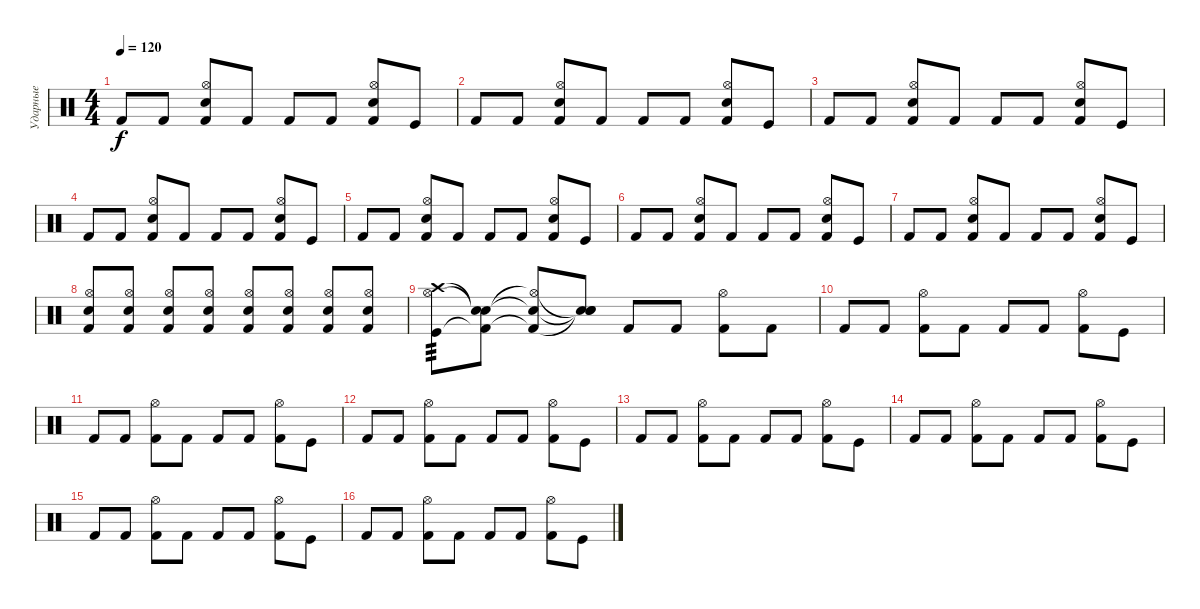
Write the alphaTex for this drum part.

\track ("Ударные" "Ударные") {instrument percussion}
\staff {score}
\articulation defaults
\ts (4 4)
\tempo 120
\clef neutral
\ks c "Kick (hit) 2".8{dy f} "Kick (hit) 2".8
("Kick (hit) 2" "Hi-Hat (open)" "Snare (hit) 2").8 "Kick (hit) 2".8 "Kick (hit) 2".8 "Kick (hit) 2".8 ("Kick (hit) 2" "Hi-Hat (open)" "Snare (hit) 2").8 "Kick (hit)".8 |
"Kick (hit) 2".8 "Kick (hit) 2".8 ("Kick (hit) 2" "Hi-Hat (open)" "Snare (hit) 2").8 "Kick (hit) 2".8 "Kick (hit) 2".8 "Kick (hit) 2".8 ("Kick (hit) 2" "Hi-Hat (open)" "Snare (hit) 2").8 "Kick (hit)".8 |
"Kick (hit) 2".8 "Kick (hit) 2".8 ("Kick (hit) 2" "Hi-Hat (open)" "Snare (hit) 2").8 "Kick (hit) 2".8 "Kick (hit) 2".8 "Kick (hit) 2".8 ("Kick (hit) 2" "Hi-Hat (open)" "Snare (hit) 2").8 "Kick (hit)".8 |
"Kick (hit) 2".8 "Kick (hit) 2".8 ("Kick (hit) 2" "Hi-Hat (open)" "Snare (hit) 2").8 "Kick (hit) 2".8 "Kick (hit) 2".8 "Kick (hit) 2".8 ("Kick (hit) 2" "Hi-Hat (open)" "Snare (hit) 2").8 "Kick (hit)".8 |
"Kick (hit) 2".8 "Kick (hit) 2".8 ("Kick (hit) 2" "Hi-Hat (open)" "Snare (hit) 2").8 "Kick (hit) 2".8 "Kick (hit) 2".8 "Kick (hit) 2".8 ("Kick (hit) 2" "Hi-Hat (open)" "Snare (hit) 2").8 "Kick (hit)".8 |
"Kick (hit) 2".8 "Kick (hit) 2".8 ("Kick (hit) 2" "Hi-Hat (open)" "Snare (hit) 2").8 "Kick (hit) 2".8 "Kick (hit) 2".8 "Kick (hit) 2".8 ("Kick (hit) 2" "Hi-Hat (open)" "Snare (hit) 2").8 "Kick (hit)".8 |
"Kick (hit) 2".8 "Kick (hit) 2".8 ("Kick (hit) 2" "Hi-Hat (open)" "Snare (hit) 2").8 "Kick (hit) 2".8 "Kick (hit) 2".8 "Kick (hit) 2".8 ("Kick (hit) 2" "Hi-Hat (open)" "Snare (hit) 2").8 "Kick (hit)".8 |
("Kick (hit) 2" "Hi-Hat (open)" "Snare (hit) 2").8 ("Kick (hit) 2" "Hi-Hat (open)" "Snare (hit) 2").8 ("Kick (hit) 2" "Hi-Hat (open)" "Snare (hit) 2").8 ("Kick (hit) 2" "Hi-Hat (open)" "Snare (hit) 2").8 ("Kick (hit) 2" "Hi-Hat (open)" "Snare (hit) 2").8 ("Kick (hit) 2" "Hi-Hat (open)" "Snare (hit) 2").8 ("Kick (hit) 2" "Hi-Hat (open)" "Snare (hit) 2").8 ("Kick (hit) 2" "Hi-Hat (open)" "Snare (hit) 2").8 |
("Kick (hit)" "Hi-Hat (open)" "Crash high (hit)").8{tp 3} ("Kick (hit) 2"{t} "Snare (hit)"{t} "Snare (hit)"{t}).8 ("Kick (hit) 2"{t} "Hi-Hat (open)"{t} "Snare (hit) 2"{t}).8 ("Snare (hit)"{t} "Snare (hit)"{t} "Snare (hit)"{t}).8 "Kick (hit) 2".8 "Kick (hit) 2".8 ("Kick (hit) 2" "Hi-Hat (open)").8 "Kick (hit) 2".8 |
"Kick (hit) 2".8 "Kick (hit) 2".8 ("Kick (hit) 2" "Hi-Hat (open)").8 "Kick (hit) 2".8 "Kick (hit) 2".8 "Kick (hit) 2".8 ("Kick (hit) 2" "Hi-Hat (open)").8 "Kick (hit)".8 |
"Kick (hit) 2".8 "Kick (hit) 2".8 ("Kick (hit) 2" "Hi-Hat (open)").8 "Kick (hit) 2".8 "Kick (hit) 2".8 "Kick (hit) 2".8 ("Kick (hit) 2" "Hi-Hat (open)").8 "Kick (hit)".8 |
"Kick (hit) 2".8 "Kick (hit) 2".8 ("Kick (hit) 2" "Hi-Hat (open)").8 "Kick (hit) 2".8 "Kick (hit) 2".8 "Kick (hit) 2".8 ("Kick (hit) 2" "Hi-Hat (open)").8 "Kick (hit)".8 |
"Kick (hit) 2".8 "Kick (hit) 2".8 ("Kick (hit) 2" "Hi-Hat (open)").8 "Kick (hit) 2".8 "Kick (hit) 2".8 "Kick (hit) 2".8 ("Kick (hit) 2" "Hi-Hat (open)").8 "Kick (hit)".8 |
"Kick (hit) 2".8 "Kick (hit) 2".8 ("Kick (hit) 2" "Hi-Hat (open)").8 "Kick (hit) 2".8 "Kick (hit) 2".8 "Kick (hit) 2".8 ("Kick (hit) 2" "Hi-Hat (open)").8 "Kick (hit)".8 |
"Kick (hit) 2".8 "Kick (hit) 2".8 ("Kick (hit) 2" "Hi-Hat (open)").8 "Kick (hit) 2".8 "Kick (hit) 2".8 "Kick (hit) 2".8 ("Kick (hit) 2" "Hi-Hat (open)").8 "Kick (hit)".8 |
"Kick (hit) 2".8 "Kick (hit) 2".8 ("Kick (hit) 2" "Hi-Hat (open)").8 "Kick (hit) 2".8 "Kick (hit) 2".8 "Kick (hit) 2".8 ("Kick (hit) 2" "Hi-Hat (open)").8 "Kick (hit)".8
